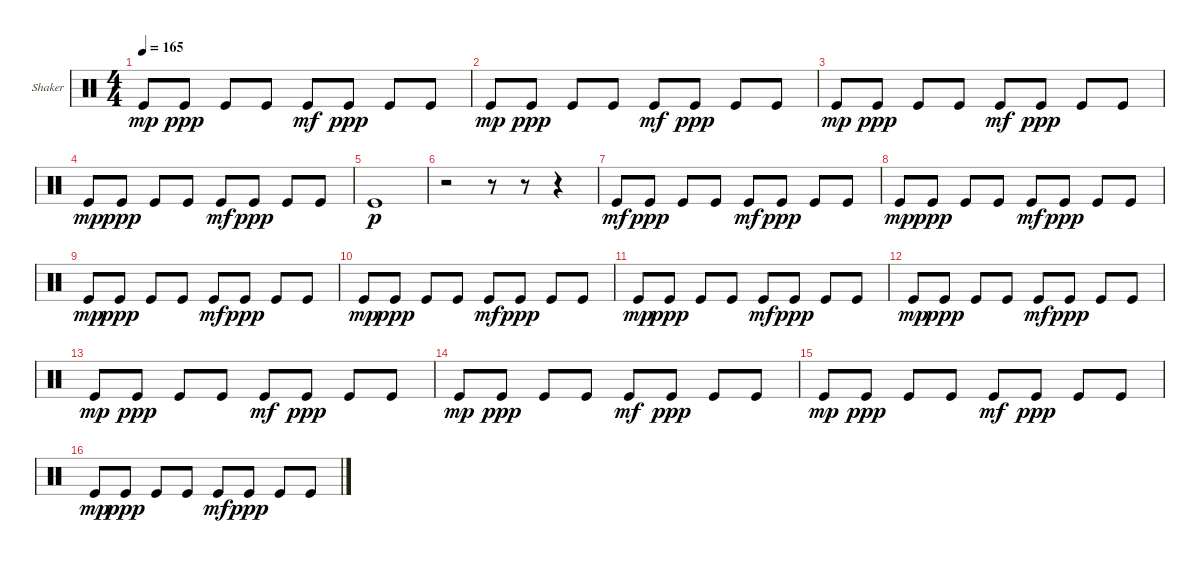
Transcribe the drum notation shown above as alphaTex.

\defaultSystemsLayout 4
\bracketExtendMode groupsimilarinstruments
\firstSystemTrackNameOrientation horizontal
\otherSystemsTrackNameOrientation horizontal
\track ("Shaker" "Shaker") {instrument percussion}
\staff {score}
\articulation defaults
\ts (4 4)
\tempo 165
\clef neutral
\ks c "Kick (hit)".8{dy mp} "Kick (hit)".8{dy ppp} "Kick (hit)".8 "Kick (hit)".8 "Kick (hit)".8{dy mf} "Kick (hit)".8{dy ppp} "Kick (hit)".8 "Kick (hit)".8
|
"Kick (hit)".8{dy mp} "Kick (hit)".8{dy ppp} "Kick (hit)".8 "Kick (hit)".8 "Kick (hit)".8{dy mf} "Kick (hit)".8{dy ppp} "Kick (hit)".8 "Kick (hit)".8 |
"Kick (hit)".8{dy mp} "Kick (hit)".8{dy ppp} "Kick (hit)".8 "Kick (hit)".8 "Kick (hit)".8{dy mf} "Kick (hit)".8{dy ppp} "Kick (hit)".8 "Kick (hit)".8 |
"Kick (hit)".8{dy mp} "Kick (hit)".8{dy ppp} "Kick (hit)".8 "Kick (hit)".8 "Kick (hit)".8{dy mf} "Kick (hit)".8{dy ppp} "Kick (hit)".8 "Kick (hit)".8 |
"Kick (hit)".1{dy p} |
r.2 r.8 r.8 r.4 |
"Kick (hit)".8{dy mf} "Kick (hit)".8{dy ppp} "Kick (hit)".8 "Kick (hit)".8 "Kick (hit)".8{dy mf} "Kick (hit)".8{dy ppp} "Kick (hit)".8 "Kick (hit)".8 |
"Kick (hit)".8{dy mp} "Kick (hit)".8{dy ppp} "Kick (hit)".8 "Kick (hit)".8 "Kick (hit)".8{dy mf} "Kick (hit)".8{dy ppp} "Kick (hit)".8 "Kick (hit)".8 |
"Kick (hit)".8{dy mp} "Kick (hit)".8{dy ppp} "Kick (hit)".8 "Kick (hit)".8 "Kick (hit)".8{dy mf} "Kick (hit)".8{dy ppp} "Kick (hit)".8 "Kick (hit)".8 |
"Kick (hit)".8{dy mp} "Kick (hit)".8{dy ppp} "Kick (hit)".8 "Kick (hit)".8 "Kick (hit)".8{dy mf} "Kick (hit)".8{dy ppp} "Kick (hit)".8 "Kick (hit)".8 |
"Kick (hit)".8{dy mp} "Kick (hit)".8{dy ppp} "Kick (hit)".8 "Kick (hit)".8 "Kick (hit)".8{dy mf} "Kick (hit)".8{dy ppp} "Kick (hit)".8 "Kick (hit)".8 |
"Kick (hit)".8{dy mp} "Kick (hit)".8{dy ppp} "Kick (hit)".8 "Kick (hit)".8 "Kick (hit)".8{dy mf} "Kick (hit)".8{dy ppp} "Kick (hit)".8 "Kick (hit)".8 |
"Kick (hit)".8{dy mp} "Kick (hit)".8{dy ppp} "Kick (hit)".8 "Kick (hit)".8 "Kick (hit)".8{dy mf} "Kick (hit)".8{dy ppp} "Kick (hit)".8 "Kick (hit)".8 |
"Kick (hit)".8{dy mp} "Kick (hit)".8{dy ppp} "Kick (hit)".8 "Kick (hit)".8 "Kick (hit)".8{dy mf} "Kick (hit)".8{dy ppp} "Kick (hit)".8 "Kick (hit)".8 |
"Kick (hit)".8{dy mp} "Kick (hit)".8{dy ppp} "Kick (hit)".8 "Kick (hit)".8 "Kick (hit)".8{dy mf} "Kick (hit)".8{dy ppp} "Kick (hit)".8 "Kick (hit)".8 |
"Kick (hit)".8{dy mp} "Kick (hit)".8{dy ppp} "Kick (hit)".8 "Kick (hit)".8 "Kick (hit)".8{dy mf} "Kick (hit)".8{dy ppp} "Kick (hit)".8 "Kick (hit)".8
